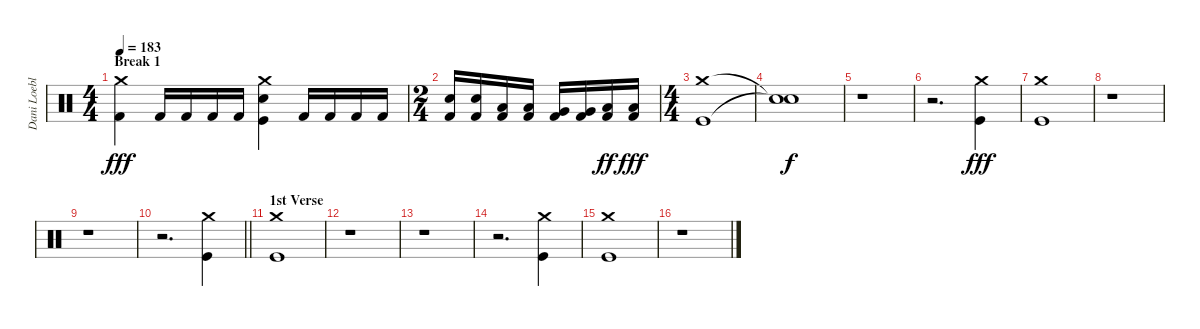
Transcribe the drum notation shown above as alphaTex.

\track ("Dani Loeble" "Dani Loebl") {instrument percussion}
\staff {score}
\articulation defaults
\ts (4 4)
\section ("" "Break 1")
\tempo 183
\clef neutral
\ks c
("Crash medium (hit)" "Kick (hit) 2").4{dy fff} "Kick (hit) 2".16 "Kick (hit) 2".16 "Kick (hit) 2".16 "Kick (hit) 2".16 ("Crash medium (hit)" "Electric Snare (hit)" "Kick (hit)").4 "Kick (hit) 2".16 "Kick (hit) 2".16 "Kick (hit) 2".16 "Kick (hit) 2".16 |
\ts (2 4)
("Electric Snare (hit)" "Kick (hit) 2").16 ("Electric Snare (hit)" "Kick (hit) 2").16 ("Low Tom (hit)" "Kick (hit) 2").16 ("Low Tom (hit)" "Kick (hit) 2").16 ("Very Low Tom (hit)" "Kick (hit) 2").16 ("Very Low Tom (hit)" "Kick (hit) 2").16 ("Low Floor Tom (hit)" "Kick (hit) 2").16{dy ff} ("Low Floor Tom (hit)" "Kick (hit) 2").16{dy fff} |
\ts (4 4)
("Crash medium (hit)" "Kick (hit)").1 |
("Snare (hit)"{t} "Snare (hit)"{t}).1{dy f} |
r.1 |
r.2{d} ("Crash medium (hit)" "Kick (hit)").4{dy fff} |
("Crash medium (hit)" "Kick (hit)").1 |
r.1 |
r.1 |
\barLineRight lightlight
r.2{d} ("Crash medium (hit)" "Kick (hit)").4 |
\section ("" "1st Verse")
("Crash medium (hit)" "Kick (hit)").1 |
r.1 |
r.1 |
r.2{d} ("Crash medium (hit)" "Kick (hit)").4 |
("Crash medium (hit)" "Kick (hit)").1 |
r.1
